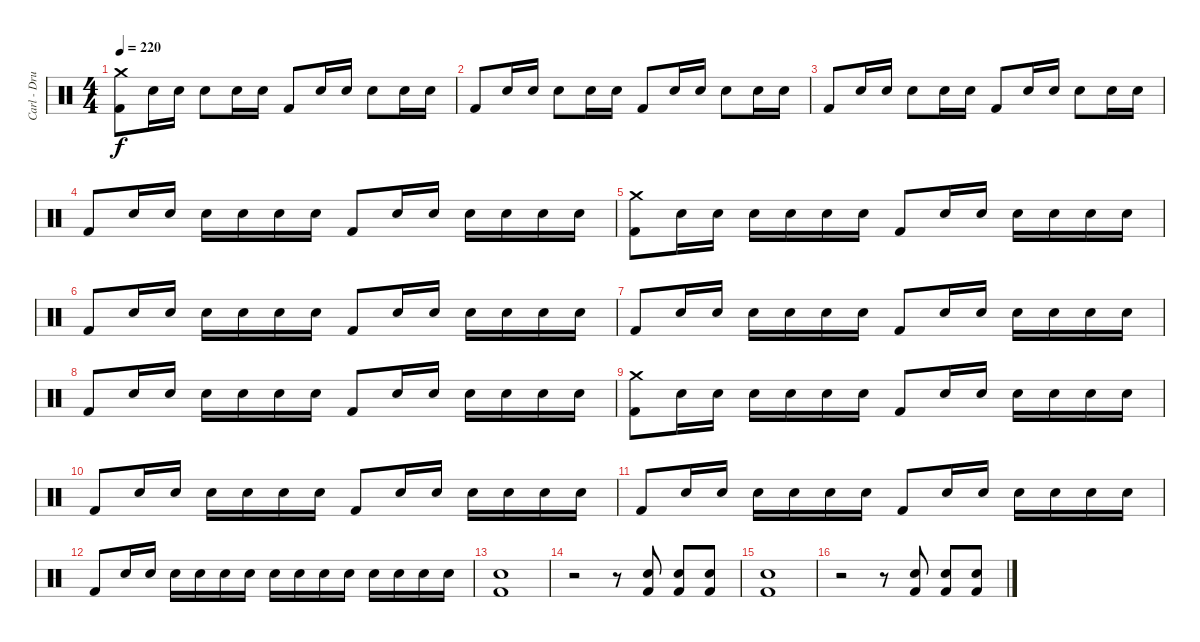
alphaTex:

\track ("Carl - Drums" "Carl - Dru") {instrument percussion}
\staff {score}
\articulation defaults
\ts (4 4)
\tempo 220
\clef neutral
\ks c
("Crash medium (hit)" "Kick (hit) 2").8{dy f} "Electric Snare (hit)".16 "Electric Snare (hit)".16 "Electric Snare (hit)".8 "Electric Snare (hit)".16 "Electric Snare (hit)".16 "Kick (hit) 2".8 "Electric Snare (hit)".16 "Electric Snare (hit)".16 "Electric Snare (hit)".8 "Electric Snare (hit)".16 "Electric Snare (hit)".16 |
"Kick (hit) 2".8 "Electric Snare (hit)".16 "Electric Snare (hit)".16 "Electric Snare (hit)".8 "Electric Snare (hit)".16 "Electric Snare (hit)".16 "Kick (hit) 2".8 "Electric Snare (hit)".16 "Electric Snare (hit)".16 "Electric Snare (hit)".8 "Electric Snare (hit)".16 "Electric Snare (hit)".16 |
"Kick (hit) 2".8 "Electric Snare (hit)".16 "Electric Snare (hit)".16 "Electric Snare (hit)".8 "Electric Snare (hit)".16 "Electric Snare (hit)".16 "Kick (hit) 2".8 "Electric Snare (hit)".16 "Electric Snare (hit)".16 "Electric Snare (hit)".8 "Electric Snare (hit)".16 "Electric Snare (hit)".16 |
"Kick (hit) 2".8 "Electric Snare (hit)".16 "Electric Snare (hit)".16 "Electric Snare (hit)".16 "Electric Snare (hit)".16 "Electric Snare (hit)".16 "Electric Snare (hit)".16 "Kick (hit) 2".8 "Electric Snare (hit)".16 "Electric Snare (hit)".16 "Electric Snare (hit)".16 "Electric Snare (hit)".16 "Electric Snare (hit)".16 "Electric Snare (hit)".16 |
("Crash medium (hit)" "Kick (hit) 2").8 "Electric Snare (hit)".16 "Electric Snare (hit)".16 "Electric Snare (hit)".16 "Electric Snare (hit)".16 "Electric Snare (hit)".16 "Electric Snare (hit)".16 "Kick (hit) 2".8 "Electric Snare (hit)".16 "Electric Snare (hit)".16 "Electric Snare (hit)".16 "Electric Snare (hit)".16 "Electric Snare (hit)".16 "Electric Snare (hit)".16 |
"Kick (hit) 2".8 "Electric Snare (hit)".16 "Electric Snare (hit)".16 "Electric Snare (hit)".16 "Electric Snare (hit)".16 "Electric Snare (hit)".16 "Electric Snare (hit)".16 "Kick (hit) 2".8 "Electric Snare (hit)".16 "Electric Snare (hit)".16 "Electric Snare (hit)".16 "Electric Snare (hit)".16 "Electric Snare (hit)".16 "Electric Snare (hit)".16 |
"Kick (hit) 2".8 "Electric Snare (hit)".16 "Electric Snare (hit)".16 "Electric Snare (hit)".16 "Electric Snare (hit)".16 "Electric Snare (hit)".16 "Electric Snare (hit)".16 "Kick (hit) 2".8 "Electric Snare (hit)".16 "Electric Snare (hit)".16 "Electric Snare (hit)".16 "Electric Snare (hit)".16 "Electric Snare (hit)".16 "Electric Snare (hit)".16 |
"Kick (hit) 2".8 "Electric Snare (hit)".16 "Electric Snare (hit)".16 "Electric Snare (hit)".16 "Electric Snare (hit)".16 "Electric Snare (hit)".16 "Electric Snare (hit)".16 "Kick (hit) 2".8 "Electric Snare (hit)".16 "Electric Snare (hit)".16 "Electric Snare (hit)".16 "Electric Snare (hit)".16 "Electric Snare (hit)".16 "Electric Snare (hit)".16 |
("Crash medium (hit)" "Kick (hit) 2").8 "Electric Snare (hit)".16 "Electric Snare (hit)".16 "Electric Snare (hit)".16 "Electric Snare (hit)".16 "Electric Snare (hit)".16 "Electric Snare (hit)".16 "Kick (hit) 2".8 "Electric Snare (hit)".16 "Electric Snare (hit)".16 "Electric Snare (hit)".16 "Electric Snare (hit)".16 "Electric Snare (hit)".16 "Electric Snare (hit)".16 |
"Kick (hit) 2".8 "Electric Snare (hit)".16 "Electric Snare (hit)".16 "Electric Snare (hit)".16 "Electric Snare (hit)".16 "Electric Snare (hit)".16 "Electric Snare (hit)".16 "Kick (hit) 2".8 "Electric Snare (hit)".16 "Electric Snare (hit)".16 "Electric Snare (hit)".16 "Electric Snare (hit)".16 "Electric Snare (hit)".16 "Electric Snare (hit)".16 |
"Kick (hit) 2".8 "Electric Snare (hit)".16 "Electric Snare (hit)".16 "Electric Snare (hit)".16 "Electric Snare (hit)".16 "Electric Snare (hit)".16 "Electric Snare (hit)".16 "Kick (hit) 2".8 "Electric Snare (hit)".16 "Electric Snare (hit)".16 "Electric Snare (hit)".16 "Electric Snare (hit)".16 "Electric Snare (hit)".16 "Electric Snare (hit)".16 |
"Kick (hit) 2".8 "Electric Snare (hit)".16 "Electric Snare (hit)".16 "Electric Snare (hit)".16 "Electric Snare (hit)".16 "Electric Snare (hit)".16 "Electric Snare (hit)".16 "Electric Snare (hit)".16 "Electric Snare (hit)".16 "Electric Snare (hit)".16 "Electric Snare (hit)".16 "Electric Snare (hit)".16 "Electric Snare (hit)".16 "Electric Snare (hit)".16 "Electric Snare (hit)".16 |
("Electric Snare (hit)" "Kick (hit) 2").1 |
r.2 r.8 ("Electric Snare (hit)" "Kick (hit) 2").8 ("Electric Snare (hit)" "Kick (hit) 2").8 ("Electric Snare (hit)" "Kick (hit) 2").8 |
("Electric Snare (hit)" "Kick (hit) 2").1 |
r.2 r.8 ("Electric Snare (hit)" "Kick (hit) 2").8 ("Electric Snare (hit)" "Kick (hit) 2").8 ("Electric Snare (hit)" "Kick (hit) 2").8
